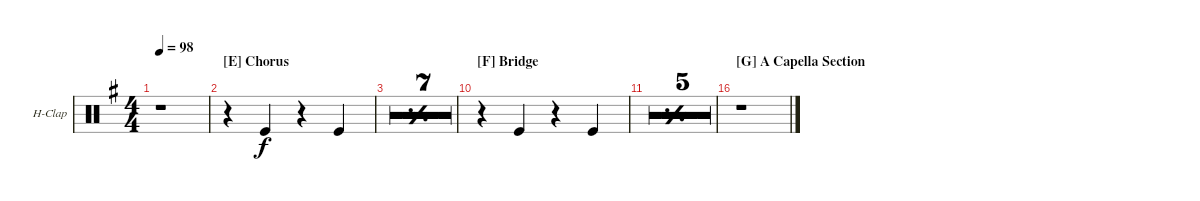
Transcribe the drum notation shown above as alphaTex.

\defaultSystemsLayout 4
\bracketExtendMode groupsimilarinstruments
\firstSystemTrackNameOrientation horizontal
\otherSystemsTrackNameOrientation horizontal
\track ("Hand Clap" "H-Clap") {multiBarRest instrument percussion}
\staff {score}
\articulation defaults
\ts (4 4)
\tempo 98
\clef neutral
\ks g
r.1{dy f} |
\section ("E" "Chorus")
r.4 "Kick (hit)".4 r.4 "Kick (hit)".4 |
\simile simple
|
|
|
|
|
|
|
\section ("F" "Bridge")
\simile none
r.4 "Kick (hit)".4 r.4 "Kick (hit)".4 |
\simile simple
|
|
|
|
|
\section ("G" "A Capella Section")
\simile none
r.1
